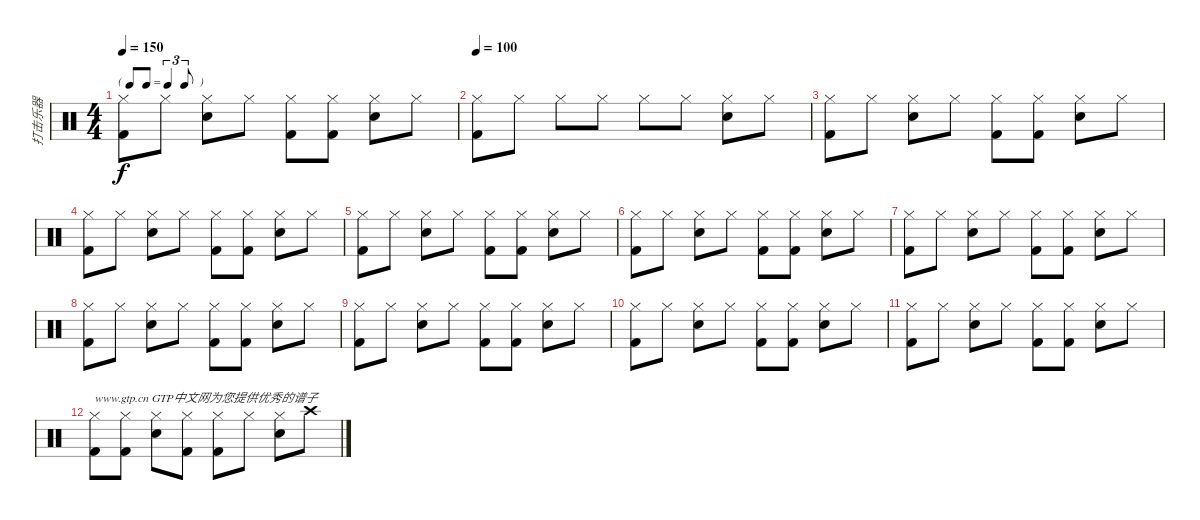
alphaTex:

\track ("打击乐器" "打击乐器") {instrument percussion}
\staff {score}
\articulation defaults
\ts (4 4)
\tf triplet8th
\tempo 150
\clef neutral
\ks c
("Hi-Hat (closed)" "Kick (hit) 2").8{dy f} "Hi-Hat (closed)".8 ("Hi-Hat (closed)" "Snare (hit) 2").8 "Hi-Hat (closed)".8 ("Hi-Hat (closed)" "Kick (hit) 2").8 ("Hi-Hat (closed)" "Kick (hit) 2").8 ("Hi-Hat (closed)" "Snare (hit) 2").8 "Hi-Hat (closed)".8 |
\tempo 100
("Hi-Hat (closed)" "Kick (hit) 2").8 "Hi-Hat (closed)".8 "Hi-Hat (closed)".8 "Hi-Hat (closed)".8 "Hi-Hat (closed)".8 "Hi-Hat (closed)".8 ("Hi-Hat (closed)" "Snare (hit) 2").8 "Hi-Hat (closed)".8 |
("Hi-Hat (closed)" "Kick (hit) 2").8 "Hi-Hat (closed)".8 ("Hi-Hat (closed)" "Snare (hit) 2").8 "Hi-Hat (closed)".8 ("Hi-Hat (closed)" "Kick (hit) 2").8 ("Hi-Hat (closed)" "Kick (hit) 2").8 ("Hi-Hat (closed)" "Snare (hit) 2").8 "Hi-Hat (closed)".8 |
("Hi-Hat (closed)" "Kick (hit) 2").8 "Hi-Hat (closed)".8 ("Hi-Hat (closed)" "Snare (hit) 2").8 "Hi-Hat (closed)".8 ("Hi-Hat (closed)" "Kick (hit) 2").8 ("Hi-Hat (closed)" "Kick (hit) 2").8 ("Hi-Hat (closed)" "Snare (hit) 2").8 "Hi-Hat (closed)".8 |
("Hi-Hat (closed)" "Kick (hit) 2").8 "Hi-Hat (closed)".8 ("Hi-Hat (closed)" "Snare (hit) 2").8 "Hi-Hat (closed)".8 ("Hi-Hat (closed)" "Kick (hit) 2").8 ("Hi-Hat (closed)" "Kick (hit) 2").8 ("Hi-Hat (closed)" "Snare (hit) 2").8 "Hi-Hat (closed)".8 |
("Hi-Hat (closed)" "Kick (hit) 2").8 "Hi-Hat (closed)".8 ("Hi-Hat (closed)" "Snare (hit) 2").8 "Hi-Hat (closed)".8 ("Hi-Hat (closed)" "Kick (hit) 2").8 ("Hi-Hat (closed)" "Kick (hit) 2").8 ("Hi-Hat (closed)" "Snare (hit) 2").8 "Hi-Hat (closed)".8 |
("Hi-Hat (closed)" "Kick (hit) 2").8 "Hi-Hat (closed)".8 ("Hi-Hat (closed)" "Snare (hit) 2").8 "Hi-Hat (closed)".8 ("Hi-Hat (closed)" "Kick (hit) 2").8 ("Hi-Hat (closed)" "Kick (hit) 2").8 ("Hi-Hat (closed)" "Snare (hit) 2").8 "Hi-Hat (closed)".8 |
("Hi-Hat (closed)" "Kick (hit) 2").8 "Hi-Hat (closed)".8 ("Hi-Hat (closed)" "Snare (hit) 2").8 "Hi-Hat (closed)".8 ("Hi-Hat (closed)" "Kick (hit) 2").8 ("Hi-Hat (closed)" "Kick (hit) 2").8 ("Hi-Hat (closed)" "Snare (hit) 2").8 "Hi-Hat (closed)".8 |
("Hi-Hat (closed)" "Kick (hit) 2").8 "Hi-Hat (closed)".8 ("Hi-Hat (closed)" "Snare (hit) 2").8 "Hi-Hat (closed)".8 ("Hi-Hat (closed)" "Kick (hit) 2").8 ("Hi-Hat (closed)" "Kick (hit) 2").8 ("Hi-Hat (closed)" "Snare (hit) 2").8 "Hi-Hat (closed)".8 |
("Hi-Hat (closed)" "Kick (hit) 2").8 "Hi-Hat (closed)".8 ("Hi-Hat (closed)" "Snare (hit) 2").8 "Hi-Hat (closed)".8 ("Hi-Hat (closed)" "Kick (hit) 2").8 ("Hi-Hat (closed)" "Kick (hit) 2").8 ("Hi-Hat (closed)" "Snare (hit) 2").8 "Hi-Hat (closed)".8 |
("Hi-Hat (closed)" "Kick (hit) 2").8 "Hi-Hat (closed)".8 ("Hi-Hat (closed)" "Snare (hit) 2").8 "Hi-Hat (closed)".8 ("Hi-Hat (closed)" "Kick (hit) 2").8 ("Hi-Hat (closed)" "Kick (hit) 2").8 ("Hi-Hat (closed)" "Snare (hit) 2").8 "Hi-Hat (closed)".8 |
("Hi-Hat (closed)" "Kick (hit) 2").8{txt "www.gtp.cn GTP中文网为您提供优秀的谱子"} ("Hi-Hat (closed)" "Kick (hit) 2").8 ("Hi-Hat (closed)" "Snare (hit) 2").8 ("Hi-Hat (closed)" "Kick (hit) 2").8 ("Hi-Hat (closed)" "Kick (hit) 2").8 "Hi-Hat (closed)".8 ("Hi-Hat (closed)" "Snare (hit) 2").8 "Crash high (hit)".8
